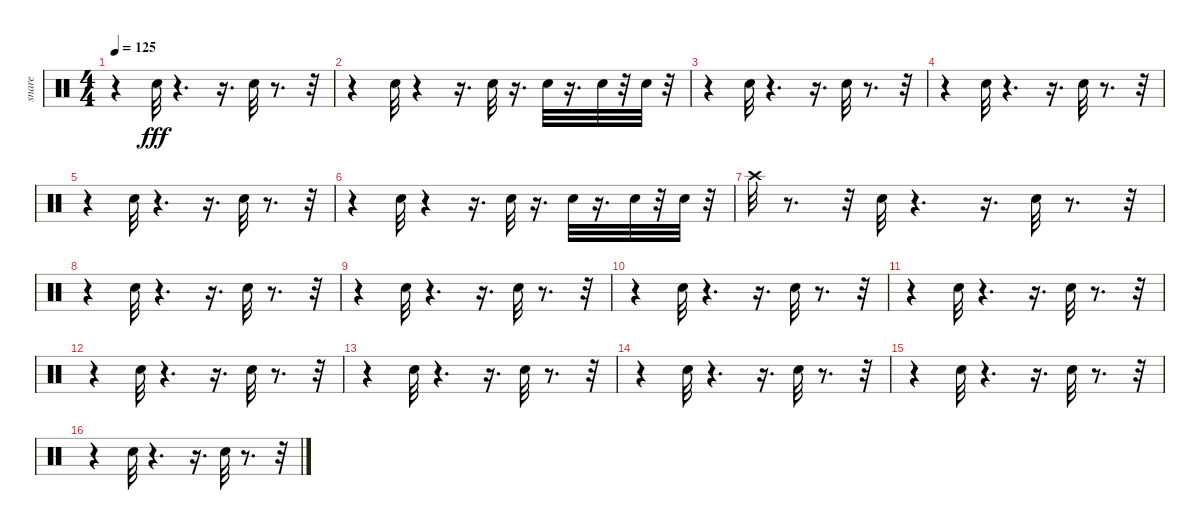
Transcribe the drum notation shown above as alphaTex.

\track ("snare" "snare") {instrument percussion}
\staff {score}
\articulation defaults
\ts (4 4)
\tempo 125
\clef neutral
\ks c
r.4{dy fff} "Electric Snare (hit)".32 r.4{d} r.16{d} "Electric Snare (hit)".32 r.8{d} r.32 |
r.4 "Electric Snare (hit)".32 r.4 r.16{d} "Electric Snare (hit)".32 r.16{d} "Electric Snare (hit)".32 r.16{d} "Electric Snare (hit)".32 r.32 "Electric Snare (hit)".32 r.32 |
r.4 "Electric Snare (hit)".32 r.4{d} r.16{d} "Electric Snare (hit)".32 r.8{d} r.32 |
r.4 "Electric Snare (hit)".32 r.4{d} r.16{d} "Electric Snare (hit)".32 r.8{d} r.32 |
r.4 "Electric Snare (hit)".32 r.4{d} r.16{d} "Electric Snare (hit)".32 r.8{d} r.32 |
r.4 "Electric Snare (hit)".32 r.4 r.16{d} "Electric Snare (hit)".32 r.16{d} "Electric Snare (hit)".32 r.16{d} "Electric Snare (hit)".32 r.32 "Electric Snare (hit)".32 r.32 |
"Crash high (hit)".32 r.8{d} r.32 "Electric Snare (hit)".32 r.4{d} r.16{d} "Electric Snare (hit)".32 r.8{d} r.32 |
r.4 "Electric Snare (hit)".32 r.4{d} r.16{d} "Electric Snare (hit)".32 r.8{d} r.32 |
r.4 "Electric Snare (hit)".32 r.4{d} r.16{d} "Electric Snare (hit)".32 r.8{d} r.32 |
r.4 "Electric Snare (hit)".32 r.4{d} r.16{d} "Electric Snare (hit)".32 r.8{d} r.32 |
r.4 "Electric Snare (hit)".32 r.4{d} r.16{d} "Electric Snare (hit)".32 r.8{d} r.32 |
r.4 "Electric Snare (hit)".32 r.4{d} r.16{d} "Electric Snare (hit)".32 r.8{d} r.32 |
r.4 "Electric Snare (hit)".32 r.4{d} r.16{d} "Electric Snare (hit)".32 r.8{d} r.32 |
r.4 "Electric Snare (hit)".32 r.4{d} r.16{d} "Electric Snare (hit)".32 r.8{d} r.32 |
r.4 "Electric Snare (hit)".32 r.4{d} r.16{d} "Electric Snare (hit)".32 r.8{d} r.32 |
r.4 "Electric Snare (hit)".32 r.4{d} r.16{d} "Electric Snare (hit)".32 r.8{d} r.32
